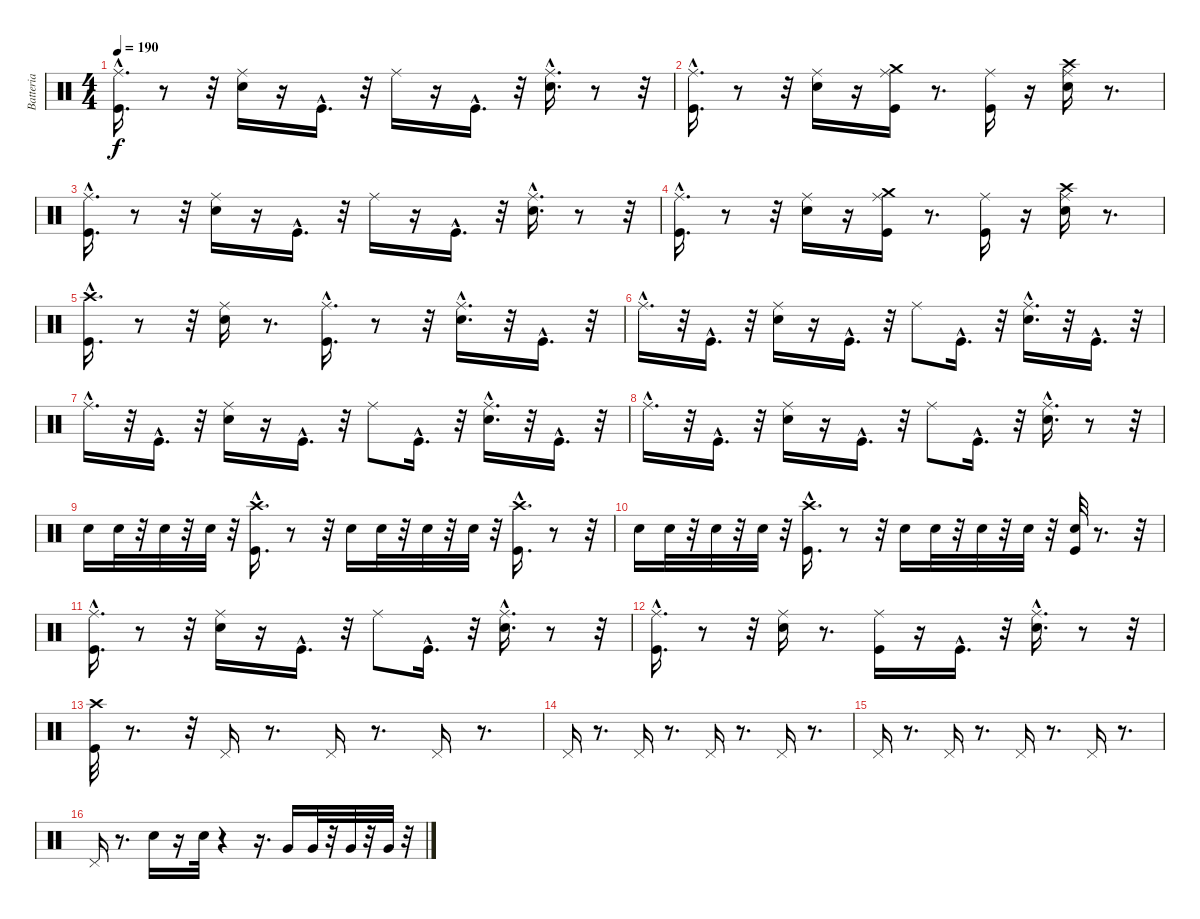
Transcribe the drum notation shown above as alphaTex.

\track ("Batteria" "Batteria") {instrument percussion}
\staff {score}
\articulation defaults
\ts (4 4)
\tempo 190
\clef neutral
\ks c
("Kick (hit)"{hac} "Ride (middle)"{hac}).16{d dy f} r.8 r.32 ("Snare (hit) 2" "Ride (middle)").16 r.16 "Kick (hit)"{hac}.16{d} r.32 "Ride (middle)".16 r.16 "Kick (hit)"{hac}.16{d} r.32 ("Snare (hit) 2"{hac} "Ride (middle)"{hac}).16{d} r.8 r.32 |
("Ride (middle)"{hac} "Kick (hit)"{hac}).16{d} r.8 r.32 ("Snare (hit) 2" "Ride (middle)").16 r.16 ("Ride (middle)" "Crash medium (hit)" "Kick (hit)").16 r.8{d} ("Kick (hit)" "Ride (middle)").16 r.16 ("Ride (middle)" "Crash high (hit)" "Snare (hit) 2").16 r.8{d} |
("Kick (hit)"{hac} "Ride (middle)"{hac}).16{d} r.8 r.32 ("Snare (hit) 2" "Ride (middle)").16 r.16 "Kick (hit)"{hac}.16{d} r.32 "Ride (middle)".16 r.16 "Kick (hit)"{hac}.16{d} r.32 ("Snare (hit) 2"{hac} "Ride (middle)"{hac}).16{d} r.8 r.32 |
("Ride (middle)"{hac} "Kick (hit)"{hac}).16{d} r.8 r.32 ("Ride (middle)" "Snare (hit) 2").16 r.16 ("Ride (middle)" "Crash medium (hit)" "Kick (hit)").16 r.8{d} ("Ride (middle)" "Kick (hit)").16 r.16 ("Ride (middle)" "Crash high (hit)" "Snare (hit) 2").16 r.8{d} |
("Kick (hit)"{hac} "Crash high (hit)"{hac}).16{d} r.8 r.32 ("Snare (hit) 2" "Ride (middle)").16 r.8{d} ("Kick (hit)"{hac} "Ride (middle)"{hac}).16{d} r.8 r.32 ("Ride (middle)"{hac} "Snare (hit) 2"{hac}).16{d} r.32 "Kick (hit)"{hac}.16{d} r.32 |
"Ride (middle)"{hac}.16{d} r.32 "Kick (hit)"{hac}.16{d} r.32 ("Ride (middle)" "Snare (hit) 2").16 r.16 "Kick (hit)"{hac}.16{d} r.32 "Ride (middle)".8 "Kick (hit)"{hac}.16{d} r.32 ("Snare (hit) 2"{hac} "Ride (middle)"{hac}).16{d} r.32 "Kick (hit)"{hac}.16{d} r.32 |
"Ride (middle)"{hac}.16{d} r.32 "Kick (hit)"{hac}.16{d} r.32 ("Snare (hit) 2" "Ride (middle)").16 r.16 "Kick (hit)"{hac}.16{d} r.32 "Ride (middle)".8 "Kick (hit)"{hac}.16{d} r.32 ("Snare (hit) 2"{hac} "Ride (middle)"{hac}).16{d} r.32 "Kick (hit)"{hac}.16{d} r.32 |
"Ride (middle)"{hac}.16{d} r.32 "Kick (hit)"{hac}.16{d} r.32 ("Snare (hit) 2" "Ride (middle)").16 r.16 "Kick (hit)"{hac}.16{d} r.32 "Ride (middle)".8 "Kick (hit)"{hac}.16{d} r.32 ("Snare (hit) 2"{hac} "Ride (middle)"{hac}).16{d} r.8 r.32 |
"Snare (hit) 2".16 "Snare (hit) 2".32 r.32 "Snare (hit) 2".32 r.32 "Snare (hit) 2".32 r.32 ("Kick (hit)"{hac} "Crash high (hit)"{hac}).16{d} r.8 r.32 "Snare (hit) 2".16 "Snare (hit) 2".32 r.32 "Snare (hit) 2".32 r.32 "Snare (hit) 2".32 r.32 ("Kick (hit)"{hac} "Crash high (hit)"{hac}).16{d} r.8 r.32 |
"Snare (hit) 2".16 "Snare (hit) 2".32 r.32 "Snare (hit) 2".32 r.32 "Snare (hit) 2".32 r.32 ("Crash high (hit)"{hac} "Kick (hit)"{hac}).16{d} r.8 r.32 "Snare (hit) 2".16 "Snare (hit) 2".32 r.32 "Snare (hit) 2".32 r.32 "Snare (hit) 2".32 r.32 ("Snare (hit) 2" "Kick (hit)").32 r.8{d} r.32 |
("Kick (hit)"{hac} "Ride (middle)"{hac}).16{d} r.8 r.32 ("Snare (hit) 2" "Ride (middle)").16 r.16 "Kick (hit)"{hac}.16{d} r.32 "Ride (middle)".8 "Kick (hit)"{hac}.16{d} r.32 ("Snare (hit) 2"{hac} "Ride (middle)"{hac}).16{d} r.8 r.32 |
("Kick (hit)"{hac} "Ride (middle)"{hac}).16{d} r.8 r.32 ("Snare (hit) 2" "Ride (middle)").16 r.8{d} ("Ride (middle)" "Kick (hit)").16 r.16 "Kick (hit)"{hac}.16{d} r.32 ("Ride (middle)"{hac} "Snare (hit) 2"{hac}).16{d} r.8 r.32 |
("Kick (hit)" "Crash high (hit)").32{volume 16} r.8{d} r.32 "Pedal Hi-Hat (hit)".16 r.8{d} "Pedal Hi-Hat (hit)".16 r.8{d} "Pedal Hi-Hat (hit)".16 r.8{d} |
"Pedal Hi-Hat (hit)".16 r.8{d} "Pedal Hi-Hat (hit)".16 r.8{d} "Pedal Hi-Hat (hit)".16 r.8{d} "Pedal Hi-Hat (hit)".16 r.8{d} |
"Pedal Hi-Hat (hit)".16 r.8{d} "Pedal Hi-Hat (hit)".16 r.8{d} "Pedal Hi-Hat (hit)".16 r.8{d} "Pedal Hi-Hat (hit)".16 r.8{d} |
"Pedal Hi-Hat (hit)".16 r.8{d} "Snare (hit) 2".16 r.16 "Snare (hit) 2".32 r.4 r.16{d} "Very Low Tom (hit)".16 "Very Low Tom (hit)".32 r.32 "Very Low Tom (hit)".32 r.32 "Very Low Tom (hit)".32 r.32
